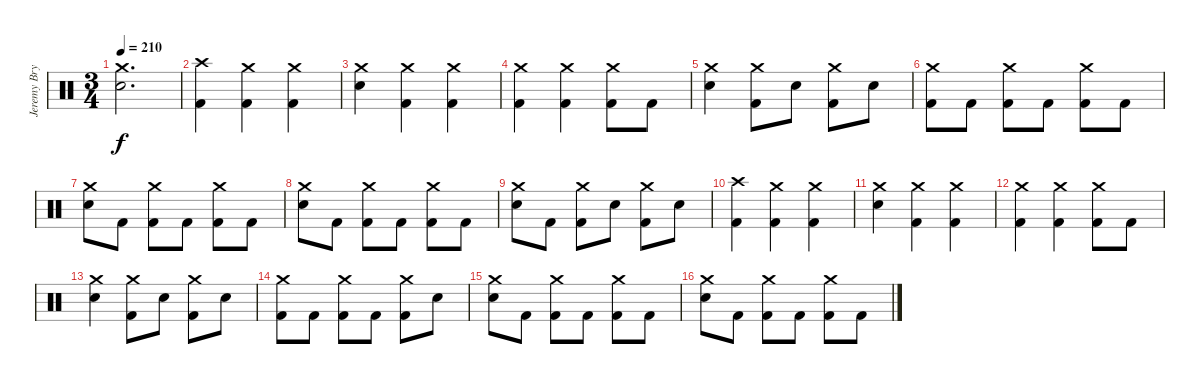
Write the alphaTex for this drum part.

\track ("Jeremy Bryan - Drums" "Jeremy Bry") {instrument percussion}
\staff {score}
\articulation defaults
\ts (3 4)
\tempo 210
\clef neutral
\ks c
("Crash medium (hit)" "Electric Snare (hit)").2{d dy f} |
("Crash high (hit)" "Kick (hit) 2").4 ("Crash medium (hit)" "Kick (hit) 2").4 ("Crash medium (hit)" "Kick (hit) 2").4 |
("Crash medium (hit)" "Electric Snare (hit)").4 ("Crash medium (hit)" "Kick (hit) 2").4 ("Crash medium (hit)" "Kick (hit) 2").4 |
("Crash medium (hit)" "Kick (hit) 2").4 ("Crash medium (hit)" "Kick (hit) 2").4 ("Crash medium (hit)" "Kick (hit) 2").8 "Kick (hit) 2".8 |
("Crash medium (hit)" "Electric Snare (hit)").4 ("Crash medium (hit)" "Kick (hit) 2").8 "Electric Snare (hit)".8 ("Crash medium (hit)" "Kick (hit) 2").8 "Electric Snare (hit)".8 |
("Crash medium (hit)" "Kick (hit) 2").8 "Kick (hit) 2".8 ("Crash medium (hit)" "Kick (hit) 2").8 "Kick (hit) 2".8 ("Crash medium (hit)" "Kick (hit) 2").8 "Kick (hit) 2".8 |
("Crash medium (hit)" "Electric Snare (hit)").8 "Kick (hit) 2".8 ("Crash medium (hit)" "Kick (hit) 2").8 "Kick (hit) 2".8 ("Crash medium (hit)" "Kick (hit) 2").8 "Kick (hit) 2".8 |
("Crash medium (hit)" "Electric Snare (hit)").8 "Kick (hit) 2".8 ("Crash medium (hit)" "Kick (hit) 2").8 "Kick (hit) 2".8 ("Crash medium (hit)" "Kick (hit) 2").8 "Kick (hit) 2".8 |
("Crash medium (hit)" "Electric Snare (hit)").8 "Kick (hit) 2".8 ("Crash medium (hit)" "Kick (hit) 2").8 "Electric Snare (hit)".8 ("Crash medium (hit)" "Kick (hit) 2").8 "Electric Snare (hit)".8 |
("Crash high (hit)" "Kick (hit) 2").4 ("Crash medium (hit)" "Kick (hit) 2").4 ("Crash medium (hit)" "Kick (hit) 2").4 |
("Crash medium (hit)" "Electric Snare (hit)").4 ("Crash medium (hit)" "Kick (hit) 2").4 ("Crash medium (hit)" "Kick (hit) 2").4 |
("Crash medium (hit)" "Kick (hit) 2").4 ("Crash medium (hit)" "Kick (hit) 2").4 ("Crash medium (hit)" "Kick (hit) 2").8 "Kick (hit) 2".8 |
("Crash medium (hit)" "Electric Snare (hit)").4 ("Crash medium (hit)" "Kick (hit) 2").8 "Electric Snare (hit)".8 ("Crash medium (hit)" "Kick (hit) 2").8 "Electric Snare (hit)".8 |
("Crash medium (hit)" "Kick (hit) 2").8 "Kick (hit) 2".8 ("Crash medium (hit)" "Kick (hit) 2").8 "Kick (hit) 2".8 ("Crash medium (hit)" "Kick (hit) 2").8 "Electric Snare (hit)".8 |
("Crash medium (hit)" "Electric Snare (hit)").8 "Kick (hit) 2".8 ("Crash medium (hit)" "Kick (hit) 2").8 "Kick (hit) 2".8 ("Crash medium (hit)" "Kick (hit) 2").8 "Kick (hit) 2".8 |
("Crash medium (hit)" "Electric Snare (hit)").8 "Kick (hit) 2".8 ("Crash medium (hit)" "Kick (hit) 2").8 "Kick (hit) 2".8 ("Crash medium (hit)" "Kick (hit) 2").8 "Kick (hit) 2".8
